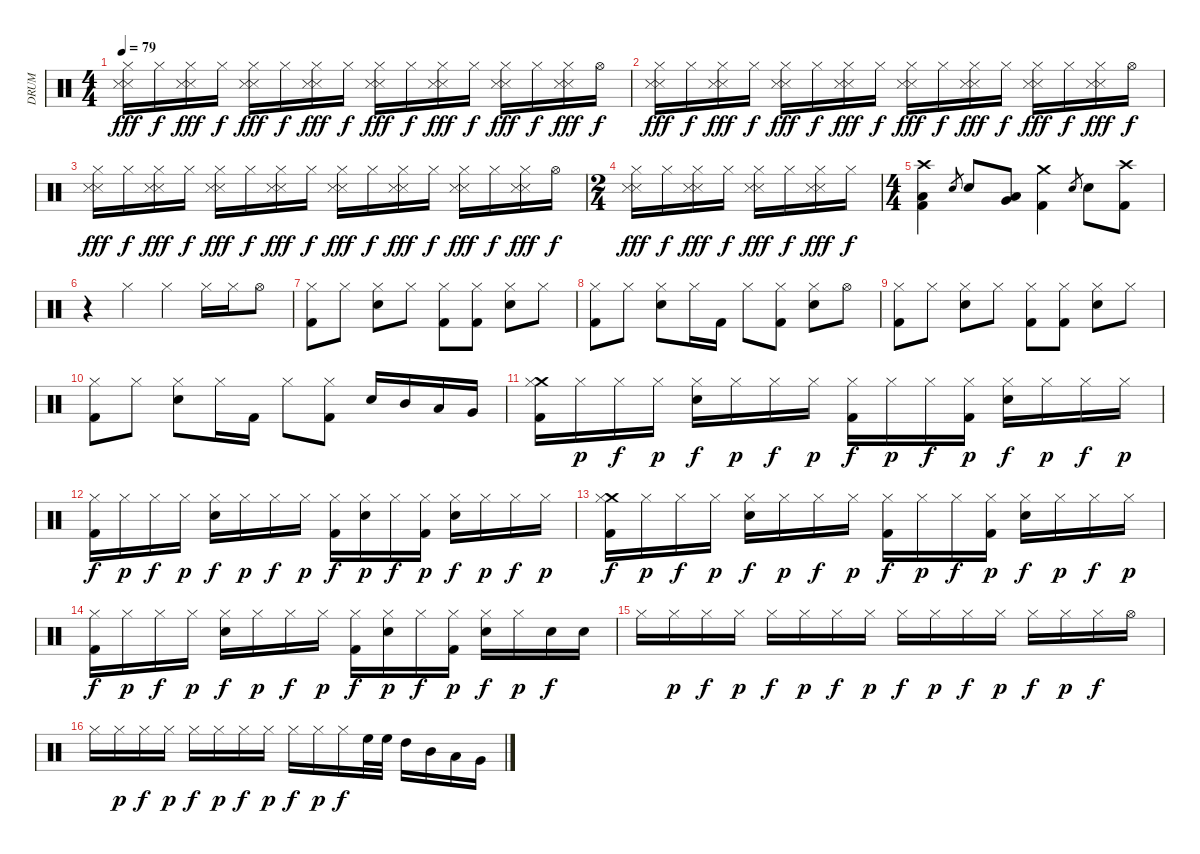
\track ("DRUM" "DRUM") {instrument percussion}
\staff {score}
\articulation defaults
\ts (4 4)
\tempo 79
\clef neutral
\ks c
("Snare (side stick) 3" "Snare (side stick) 3" "Hi-Hat (closed)").16{dy fff} "Hi-Hat (closed)".16{dy f} ("Snare (side stick) 3" "Snare (side stick) 3" "Hi-Hat (closed)").16{dy fff} "Hi-Hat (closed)".16{dy f} ("Snare (side stick) 3" "Snare (side stick) 3" "Hi-Hat (closed)").16{dy fff} "Hi-Hat (closed)".16{dy f} ("Snare (side stick) 3" "Snare (side stick) 3" "Hi-Hat (closed)").16{dy fff} "Hi-Hat (closed)".16{dy f} ("Snare (side stick) 3" "Snare (side stick) 3" "Hi-Hat (closed)").16{dy fff} "Hi-Hat (closed)".16{dy f} ("Snare (side stick) 3" "Snare (side stick) 3" "Hi-Hat (closed)").16{dy fff} "Hi-Hat (closed)".16{dy f} ("Snare (side stick) 3" "Snare (side stick) 3" "Hi-Hat (closed)").16{dy fff} "Hi-Hat (closed)".16{dy f} ("Snare (side stick) 3" "Snare (side stick) 3" "Hi-Hat (closed)").16{dy fff} "Hi-Hat (open)".16{dy f} |
("Snare (side stick) 3" "Snare (side stick) 3" "Hi-Hat (closed)").16{dy fff} "Hi-Hat (closed)".16{dy f} ("Snare (side stick) 3" "Snare (side stick) 3" "Hi-Hat (closed)").16{dy fff} "Hi-Hat (closed)".16{dy f} ("Snare (side stick) 3" "Snare (side stick) 3" "Hi-Hat (closed)").16{dy fff} "Hi-Hat (closed)".16{dy f} ("Snare (side stick) 3" "Snare (side stick) 3" "Hi-Hat (closed)").16{dy fff} "Hi-Hat (closed)".16{dy f} ("Snare (side stick) 3" "Snare (side stick) 3" "Hi-Hat (closed)").16{dy fff} "Hi-Hat (closed)".16{dy f} ("Snare (side stick) 3" "Snare (side stick) 3" "Hi-Hat (closed)").16{dy fff} "Hi-Hat (closed)".16{dy f} ("Snare (side stick) 3" "Snare (side stick) 3" "Hi-Hat (closed)").16{dy fff} "Hi-Hat (closed)".16{dy f} ("Snare (side stick) 3" "Snare (side stick) 3" "Hi-Hat (closed)").16{dy fff} "Hi-Hat (open)".16{dy f} |
("Snare (side stick) 3" "Snare (side stick) 3" "Hi-Hat (closed)").16{dy fff} "Hi-Hat (closed)".16{dy f} ("Snare (side stick) 3" "Snare (side stick) 3" "Hi-Hat (closed)").16{dy fff} "Hi-Hat (closed)".16{dy f} ("Snare (side stick) 3" "Snare (side stick) 3" "Hi-Hat (closed)").16{dy fff} "Hi-Hat (closed)".16{dy f} ("Snare (side stick) 3" "Snare (side stick) 3" "Hi-Hat (closed)").16{dy fff} "Hi-Hat (closed)".16{dy f} ("Snare (side stick) 3" "Snare (side stick) 3" "Hi-Hat (closed)").16{dy fff} "Hi-Hat (closed)".16{dy f} ("Snare (side stick) 3" "Snare (side stick) 3" "Hi-Hat (closed)").16{dy fff} "Hi-Hat (closed)".16{dy f} ("Snare (side stick) 3" "Snare (side stick) 3" "Hi-Hat (closed)").16{dy fff} "Hi-Hat (closed)".16{dy f} ("Snare (side stick) 3" "Snare (side stick) 3" "Hi-Hat (closed)").16{dy fff} "Hi-Hat (open)".16{dy f} |
\ts (2 4)
("Snare (side stick) 3" "Snare (side stick) 3" "Hi-Hat (closed)").16{dy fff} "Hi-Hat (closed)".16{dy f} ("Snare (side stick) 3" "Snare (side stick) 3" "Hi-Hat (closed)").16{dy fff} "Hi-Hat (closed)".16{dy f} ("Snare (side stick) 3" "Snare (side stick) 3" "Hi-Hat (closed)").16{dy fff} "Hi-Hat (closed)".16{dy f} ("Snare (side stick) 3" "Snare (side stick) 3" "Hi-Hat (closed)").16{dy fff} "Hi-Hat (closed)".16{dy f} |
\ts (4 4)
("Crash high (hit)" "Low Floor Tom (hit)" "Kick (hit) 2").4 "Snare (hit) 2".8{gr} "Snare (hit) 2".8 ("Low Tom (hit)" "Very Low Tom (hit)").8 ("Crash medium (hit)" "Kick (hit) 2").4 "Snare (hit) 2".8{gr} "Snare (hit) 2".8 ("Crash high (hit)" "Kick (hit) 2").8 |
r.4 "Hi-Hat (closed)".4 "Hi-Hat (closed)".4 "Hi-Hat (closed)".16 "Hi-Hat (closed)".16 "Hi-Hat (open)".8 |
("Hi-Hat (closed)" "Kick (hit) 2").8 "Hi-Hat (closed)".8 ("Snare (hit) 2" "Hi-Hat (closed)").8 "Hi-Hat (closed)".8 ("Hi-Hat (closed)" "Kick (hit) 2").8 ("Hi-Hat (closed)" "Kick (hit) 2").8 ("Snare (hit) 2" "Hi-Hat (closed)").8 "Hi-Hat (closed)".8 |
("Hi-Hat (closed)" "Kick (hit) 2").8 "Hi-Hat (closed)".8 ("Snare (hit) 2" "Hi-Hat (closed)").8 "Hi-Hat (closed)".16 "Kick (hit) 2".16 "Hi-Hat (closed)".8 ("Hi-Hat (closed)" "Kick (hit) 2").8 ("Snare (hit) 2" "Hi-Hat (closed)").8 "Hi-Hat (open)".8 |
("Hi-Hat (closed)" "Kick (hit) 2").8 "Hi-Hat (closed)".8 ("Snare (hit) 2" "Hi-Hat (closed)").8 "Hi-Hat (closed)".8 ("Hi-Hat (closed)" "Kick (hit) 2").8 ("Hi-Hat (closed)" "Kick (hit) 2").8 ("Snare (hit) 2" "Hi-Hat (closed)").8 "Hi-Hat (closed)".8 |
("Hi-Hat (closed)" "Kick (hit) 2").8 "Hi-Hat (closed)".8 ("Snare (hit) 2" "Hi-Hat (closed)").8 "Hi-Hat (closed)".16 "Kick (hit) 2".16 "Hi-Hat (closed)".8 ("Hi-Hat (closed)" "Kick (hit) 2").8 "Snare (hit) 2".16 "Mid Tom (hit)".16 "Low Tom (hit)".16 "Very Low Tom (hit)".16 |
("Crash medium (hit)" "Hi-Hat (closed)" "Kick (hit) 2").16 "Hi-Hat (closed)".16{dy p} "Hi-Hat (closed)".16{dy f} "Hi-Hat (closed)".16{dy p} ("Snare (hit) 2" "Hi-Hat (closed)").16{dy f} "Hi-Hat (closed)".16{dy p} "Hi-Hat (closed)".16{dy f} "Hi-Hat (closed)".16{dy p} ("Hi-Hat (closed)" "Kick (hit) 2").16{dy f} "Hi-Hat (closed)".16{dy p} "Hi-Hat (closed)".16{dy f} ("Hi-Hat (closed)" "Kick (hit) 2").16{dy p} ("Snare (hit) 2" "Hi-Hat (closed)").16{dy f} "Hi-Hat (closed)".16{dy p} "Hi-Hat (closed)".16{dy f} "Hi-Hat (closed)".16{dy p} |
("Hi-Hat (closed)" "Kick (hit) 2").16{dy f} "Hi-Hat (closed)".16{dy p} "Hi-Hat (closed)".16{dy f} "Hi-Hat (closed)".16{dy p} ("Snare (hit) 2" "Hi-Hat (closed)").16{dy f} "Hi-Hat (closed)".16{dy p} "Hi-Hat (closed)".16{dy f} "Hi-Hat (closed)".16{dy p} ("Hi-Hat (closed)" "Kick (hit) 2").16{dy f} ("Snare (hit) 2" "Hi-Hat (closed)").16{dy p} "Hi-Hat (closed)".16{dy f} ("Hi-Hat (closed)" "Kick (hit) 2").16{dy p} ("Snare (hit) 2" "Hi-Hat (closed)").16{dy f} "Hi-Hat (closed)".16{dy p} "Hi-Hat (closed)".16{dy f} "Hi-Hat (closed)".16{dy p} |
("Crash medium (hit)" "Hi-Hat (closed)" "Kick (hit) 2").16{dy f} "Hi-Hat (closed)".16{dy p} "Hi-Hat (closed)".16{dy f} "Hi-Hat (closed)".16{dy p} ("Snare (hit) 2" "Hi-Hat (closed)").16{dy f} "Hi-Hat (closed)".16{dy p} "Hi-Hat (closed)".16{dy f} "Hi-Hat (closed)".16{dy p} ("Hi-Hat (closed)" "Kick (hit) 2").16{dy f} "Hi-Hat (closed)".16{dy p} "Hi-Hat (closed)".16{dy f} ("Hi-Hat (closed)" "Kick (hit) 2").16{dy p} ("Snare (hit) 2" "Hi-Hat (closed)").16{dy f} "Hi-Hat (closed)".16{dy p} "Hi-Hat (closed)".16{dy f} "Hi-Hat (closed)".16{dy p} |
("Hi-Hat (closed)" "Kick (hit) 2").16{dy f} "Hi-Hat (closed)".16{dy p} "Hi-Hat (closed)".16{dy f} "Hi-Hat (closed)".16{dy p} ("Snare (hit) 2" "Hi-Hat (closed)").16{dy f} "Hi-Hat (closed)".16{dy p} "Hi-Hat (closed)".16{dy f} "Hi-Hat (closed)".16{dy p} ("Hi-Hat (closed)" "Kick (hit) 2").16{dy f} ("Snare (hit) 2" "Hi-Hat (closed)").16{dy p} "Hi-Hat (closed)".16{dy f} ("Hi-Hat (closed)" "Kick (hit) 2").16{dy p} ("Snare (hit) 2" "Hi-Hat (closed)").16{dy f} "Hi-Hat (closed)".16{dy p} "Snare (hit) 2".16{dy f} "Snare (hit) 2".16 |
"Hi-Hat (closed)".16 "Hi-Hat (closed)".16{dy p} "Hi-Hat (closed)".16{dy f} "Hi-Hat (closed)".16{dy p} "Hi-Hat (closed)".16{dy f} "Hi-Hat (closed)".16{dy p} "Hi-Hat (closed)".16{dy f} "Hi-Hat (closed)".16{dy p} "Hi-Hat (closed)".16{dy f} "Hi-Hat (closed)".16{dy p} "Hi-Hat (closed)".16{dy f} "Hi-Hat (closed)".16{dy p} "Hi-Hat (closed)".16{dy f} "Hi-Hat (closed)".16{dy p} "Hi-Hat (closed)".16{dy f} "Hi-Hat (open)".16 |
"Hi-Hat (closed)".16 "Hi-Hat (closed)".16{dy p} "Hi-Hat (closed)".16{dy f} "Hi-Hat (closed)".16{dy p} "Hi-Hat (closed)".16{dy f} "Hi-Hat (closed)".16{dy p} "Hi-Hat (closed)".16{dy f} "Hi-Hat (closed)".16{dy p} "Hi-Hat (closed)".16{dy f} "Hi-Hat (closed)".16{dy p} "Hi-Hat (closed)".16{dy f} "High Floor Tom (hit)".32 "High Floor Tom (hit)".32 "High Tom (hit)".16 "Mid Tom (hit)".16 "Low Tom (hit)".16 "Very Low Tom (hit)".16
